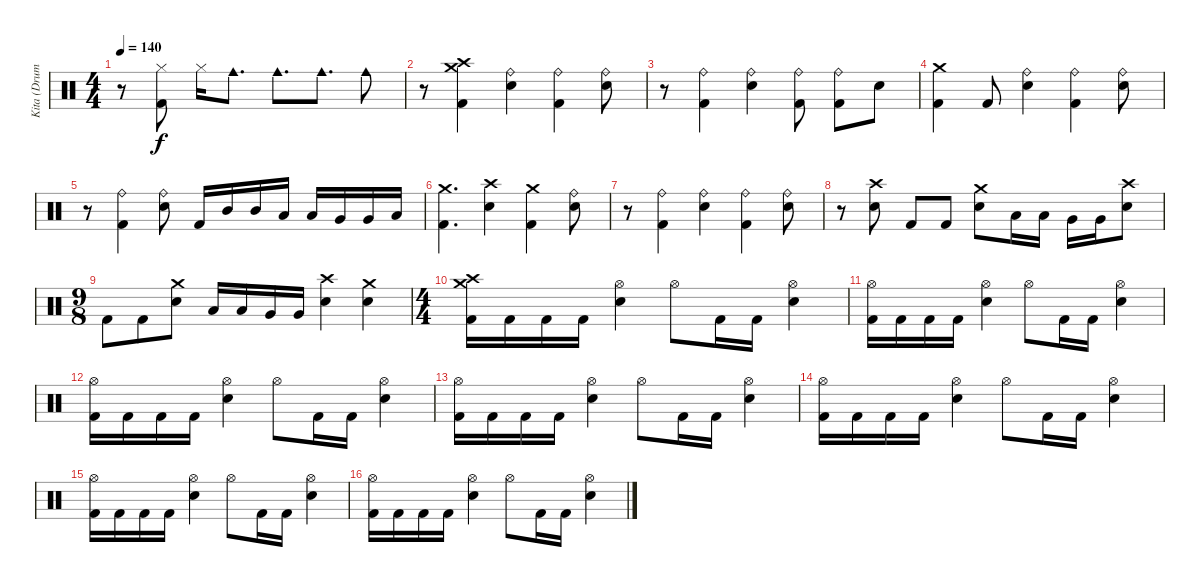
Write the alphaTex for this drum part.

\track ("Kita (Drums)" "Kita (Drum") {instrument percussion}
\staff {score}
\articulation defaults
\ts (4 4)
\tempo 140
\clef neutral
\ks c
r.8{dy f} ("Hi-Hat (closed)" "Kick (hit) 2").8 "Hi-Hat (closed)".16 "Cowbell medium (hit)".8{d} "Cowbell medium (hit)".8{d} "Cowbell medium (hit)".8{d} "Cowbell medium (hit)".8 |
r.8 ("Crash medium (hit)" "Crash high (hit)" "Kick (hit) 2").4 ("Ride (bell)" "Electric Snare (hit)").4 ("Ride (bell)" "Kick (hit) 2").4 ("Ride (bell)" "Electric Snare (hit)").8 |
r.8 ("Ride (bell)" "Kick (hit) 2").4 ("Ride (bell)" "Electric Snare (hit)").4 ("Ride (bell)" "Kick (hit) 2").8 ("Ride (bell)" "Kick (hit) 2").8 "Electric Snare (hit)".8 |
("Crash medium (hit)" "Kick (hit) 2").4 "Kick (hit) 2".8 ("Ride (bell)" "Electric Snare (hit)").4 ("Ride (bell)" "Kick (hit) 2").4 ("Ride (bell)" "Electric Snare (hit)").8 |
r.8 ("Ride (bell)" "Kick (hit) 2").4 ("Ride (bell)" "Electric Snare (hit)").8 "Kick (hit) 2".16 "Mid Tom (hit)".16 "Mid Tom (hit)".16 "Low Tom (hit)".16 "Low Tom (hit)".16 "Very Low Tom (hit)".16 "Very Low Tom (hit)".16 "Low Floor Tom (hit)".16 |
("Crash medium (hit)" "Kick (hit) 2").4{d} ("Crash high (hit)" "Electric Snare (hit)").4 ("Crash medium (hit)" "Kick (hit) 2").4 ("Ride (bell)" "Electric Snare (hit)").8 |
r.8 ("Ride (bell)" "Kick (hit) 2").4 ("Ride (bell)" "Electric Snare (hit)").4 ("Ride (bell)" "Kick (hit) 2").4 ("Ride (bell)" "Electric Snare (hit)").8 |
r.8 ("Crash high (hit)" "Electric Snare (hit)").8 "Kick (hit) 2".8 "Kick (hit) 2".8 ("Crash medium (hit)" "Electric Snare (hit)").8 "Low Tom (hit)".16 "Low Tom (hit)".16 "Very Low Tom (hit)".16 "Very Low Tom (hit)".16 ("Crash high (hit)" "Electric Snare (hit)").8 |
\ts (9 8)
"Kick (hit) 2".8 "Kick (hit) 2".8 ("Crash medium (hit)" "Electric Snare (hit)").8 "Low Tom (hit)".16 "Low Tom (hit)".16 "Very Low Tom (hit)".16 "Very Low Tom (hit)".16 ("Crash high (hit)" "Electric Snare (hit)").4 ("Crash medium (hit)" "Electric Snare (hit)").4 |
\ts (4 4)
("Crash medium (hit)" "Crash high (hit)" "Kick (hit) 2").16 "Kick (hit) 2".16 "Kick (hit) 2".16 "Kick (hit) 2".16 ("Hi-Hat (open)" "Electric Snare (hit)").4 "Hi-Hat (open)".8 "Kick (hit) 2".16 "Kick (hit) 2".16 ("Hi-Hat (open)" "Electric Snare (hit)").4 |
("Hi-Hat (open)" "Kick (hit) 2").16 "Kick (hit) 2".16 "Kick (hit) 2".16 "Kick (hit) 2".16 ("Hi-Hat (open)" "Electric Snare (hit)").4 "Hi-Hat (open)".8 "Kick (hit) 2".16 "Kick (hit) 2".16 ("Hi-Hat (open)" "Electric Snare (hit)").4 |
("Hi-Hat (open)" "Kick (hit) 2").16 "Kick (hit) 2".16 "Kick (hit) 2".16 "Kick (hit) 2".16 ("Hi-Hat (open)" "Electric Snare (hit)").4 "Hi-Hat (open)".8 "Kick (hit) 2".16 "Kick (hit) 2".16 ("Hi-Hat (open)" "Electric Snare (hit)").4 |
("Hi-Hat (open)" "Kick (hit) 2").16 "Kick (hit) 2".16 "Kick (hit) 2".16 "Kick (hit) 2".16 ("Hi-Hat (open)" "Electric Snare (hit)").4 "Hi-Hat (open)".8 "Kick (hit) 2".16 "Kick (hit) 2".16 ("Hi-Hat (open)" "Electric Snare (hit)").4 |
("Hi-Hat (open)" "Kick (hit) 2").16 "Kick (hit) 2".16 "Kick (hit) 2".16 "Kick (hit) 2".16 ("Hi-Hat (open)" "Electric Snare (hit)").4 "Hi-Hat (open)".8 "Kick (hit) 2".16 "Kick (hit) 2".16 ("Hi-Hat (open)" "Electric Snare (hit)").4 |
("Hi-Hat (open)" "Kick (hit) 2").16 "Kick (hit) 2".16 "Kick (hit) 2".16 "Kick (hit) 2".16 ("Hi-Hat (open)" "Electric Snare (hit)").4 "Hi-Hat (open)".8 "Kick (hit) 2".16 "Kick (hit) 2".16 ("Hi-Hat (open)" "Electric Snare (hit)").4 |
("Hi-Hat (open)" "Kick (hit) 2").16 "Kick (hit) 2".16 "Kick (hit) 2".16 "Kick (hit) 2".16 ("Hi-Hat (open)" "Electric Snare (hit)").4 "Hi-Hat (open)".8 "Kick (hit) 2".16 "Kick (hit) 2".16 ("Hi-Hat (open)" "Electric Snare (hit)").4
